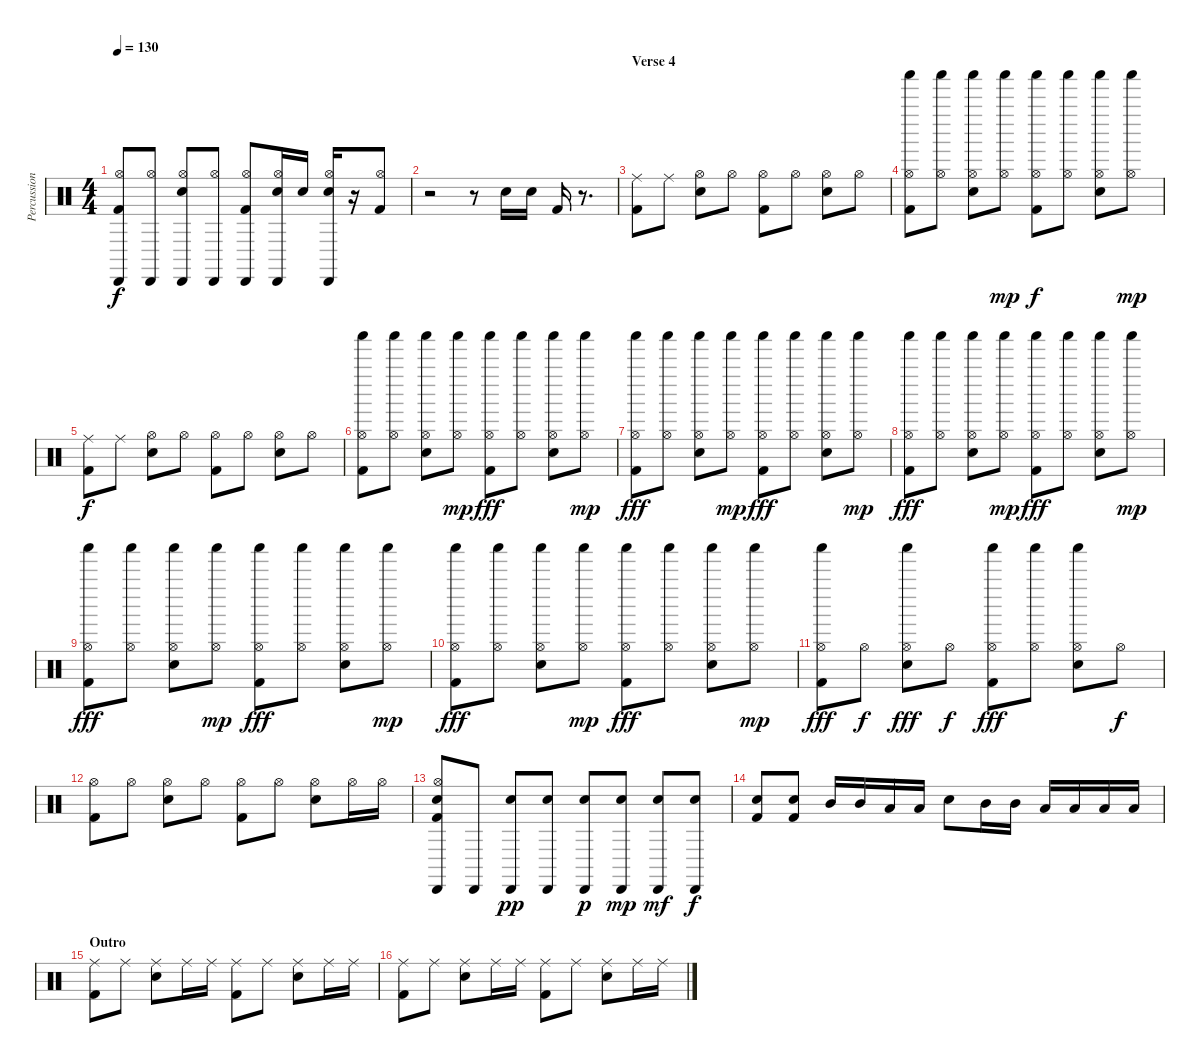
\track ("Percussion" "Percussion") {instrument percussion}
\staff {score}
\articulation defaults
\ts (4 4)
\tempo 130
\clef neutral
\ks c
("Cabasa (hit)" "Hi-Hat (open)" "Kick (hit) 2").8{dy f} ("Cabasa (hit)" "Hi-Hat (open)").8 ("Cabasa (hit)" "Hi-Hat (open)" "Snare (hit) 2").8 ("Cabasa (hit)" "Hi-Hat (open)").8 ("Cabasa (hit)" "Hi-Hat (open)" "Kick (hit) 2").8 ("Cabasa (hit)" "Hi-Hat (open)" "Snare (hit) 2").16 "Snare (hit) 2".16 ("Cabasa (hit)" "Hi-Hat (open)" "Snare (hit) 2").16 r.16 ("Hi-Hat (open)" "Kick (hit) 2").8 |
r.2 r.8 "Snare (hit) 2".16 "Snare (hit) 2".16 "Kick (hit) 2".16 r.8{d} |
\section ("" "Verse 4")
("Ride (middle)" "Kick (hit) 2").8 "Ride (middle)".8 ("Hi-Hat (open)" "Snare (hit) 2").8 "Hi-Hat (open)".8 ("Hi-Hat (open)" "Kick (hit) 2").8 "Hi-Hat (open)".8 ("Hi-Hat (open)" "Snare (hit) 2").8 "Hi-Hat (open)".8 |
("Shaker (hit)" "Hi-Hat (open)" "Kick (hit) 2").8 ("Shaker (hit)" "Hi-Hat (open)").8 ("Shaker (hit)" "Hi-Hat (open)" "Snare (hit) 2").8 ("Shaker (hit)" "Hi-Hat (open)").8{dy mp} ("Shaker (hit)" "Hi-Hat (open)" "Kick (hit) 2").8{dy f} ("Shaker (hit)" "Hi-Hat (open)").8 ("Shaker (hit)" "Hi-Hat (open)" "Snare (hit) 2").8 ("Shaker (hit)" "Hi-Hat (open)").8{dy mp} |
("Ride (middle)" "Kick (hit) 2").8{dy f} "Ride (middle)".8 ("Hi-Hat (open)" "Snare (hit) 2").8 "Hi-Hat (open)".8 ("Hi-Hat (open)" "Kick (hit) 2").8 "Hi-Hat (open)".8 ("Hi-Hat (open)" "Snare (hit) 2").8 "Hi-Hat (open)".8 |
("Shaker (hit)" "Hi-Hat (open)" "Kick (hit) 2").8 ("Shaker (hit)" "Hi-Hat (open)").8 ("Shaker (hit)" "Hi-Hat (open)" "Snare (hit) 2").8 ("Shaker (hit)" "Hi-Hat (open)").8{dy mp} ("Shaker (hit)" "Hi-Hat (open)" "Kick (hit) 2").8{dy fff} ("Shaker (hit)" "Hi-Hat (open)").8 ("Shaker (hit)" "Hi-Hat (open)" "Snare (hit) 2").8 ("Shaker (hit)" "Hi-Hat (open)").8{dy mp} |
("Shaker (hit)" "Hi-Hat (open)" "Kick (hit) 2").8{dy fff} ("Shaker (hit)" "Hi-Hat (open)").8 ("Shaker (hit)" "Hi-Hat (open)" "Snare (hit) 2").8 ("Shaker (hit)" "Hi-Hat (open)").8{dy mp} ("Shaker (hit)" "Hi-Hat (open)" "Kick (hit) 2").8{dy fff} ("Shaker (hit)" "Hi-Hat (open)").8 ("Shaker (hit)" "Hi-Hat (open)" "Snare (hit) 2").8 ("Shaker (hit)" "Hi-Hat (open)").8{dy mp} |
("Shaker (hit)" "Hi-Hat (open)" "Kick (hit) 2").8{dy fff} ("Shaker (hit)" "Hi-Hat (open)").8 ("Shaker (hit)" "Hi-Hat (open)" "Snare (hit) 2").8 ("Shaker (hit)" "Hi-Hat (open)").8{dy mp} ("Shaker (hit)" "Hi-Hat (open)" "Kick (hit) 2").8{dy fff} ("Shaker (hit)" "Hi-Hat (open)").8 ("Shaker (hit)" "Hi-Hat (open)" "Snare (hit) 2").8 ("Shaker (hit)" "Hi-Hat (open)").8{dy mp} |
("Shaker (hit)" "Hi-Hat (open)" "Kick (hit) 2").8{dy fff} ("Shaker (hit)" "Hi-Hat (open)").8 ("Shaker (hit)" "Hi-Hat (open)" "Snare (hit) 2").8 ("Shaker (hit)" "Hi-Hat (open)").8{dy mp} ("Shaker (hit)" "Hi-Hat (open)" "Kick (hit) 2").8{dy fff} ("Shaker (hit)" "Hi-Hat (open)").8 ("Shaker (hit)" "Hi-Hat (open)" "Snare (hit) 2").8 ("Shaker (hit)" "Hi-Hat (open)").8{dy mp} |
("Shaker (hit)" "Hi-Hat (open)" "Kick (hit) 2").8{dy fff} ("Shaker (hit)" "Hi-Hat (open)").8 ("Shaker (hit)" "Hi-Hat (open)" "Snare (hit) 2").8 ("Shaker (hit)" "Hi-Hat (open)").8{dy mp} ("Shaker (hit)" "Hi-Hat (open)" "Kick (hit) 2").8{dy fff} ("Shaker (hit)" "Hi-Hat (open)").8 ("Shaker (hit)" "Hi-Hat (open)" "Snare (hit) 2").8 ("Shaker (hit)" "Hi-Hat (open)").8{dy mp} |
("Shaker (hit)" "Hi-Hat (open)" "Kick (hit) 2").8{dy fff} "Hi-Hat (open)".8{dy f} ("Shaker (hit)" "Hi-Hat (open)" "Snare (hit) 2").8{dy fff} "Hi-Hat (open)".8{dy f} ("Shaker (hit)" "Hi-Hat (open)" "Kick (hit) 2").8{dy fff} ("Shaker (hit)" "Hi-Hat (open)").8 ("Shaker (hit)" "Hi-Hat (open)" "Snare (hit) 2").8 "Hi-Hat (open)".8{dy f} |
("Hi-Hat (open)" "Kick (hit) 2").8 "Hi-Hat (open)".8 ("Hi-Hat (open)" "Snare (hit) 2").8 "Hi-Hat (open)".8 ("Hi-Hat (open)" "Kick (hit) 2").8 "Hi-Hat (open)".8 ("Hi-Hat (open)" "Snare (hit) 2").8 "Hi-Hat (open)".16 "Hi-Hat (open)".16 |
("Cabasa (hit)" "Hi-Hat (open)" "Snare (hit) 2" "Kick (hit) 2").8 "Cabasa (hit)".8 ("Cabasa (hit)" "Snare (hit) 2").8{dy pp} ("Cabasa (hit)" "Snare (hit) 2").8 ("Cabasa (hit)" "Snare (hit) 2").8{dy p} ("Cabasa (hit)" "Snare (hit) 2").8{dy mp} ("Cabasa (hit)" "Snare (hit) 2").8{dy mf} ("Cabasa (hit)" "Snare (hit) 2").8{dy f} |
("Snare (hit) 2" "Kick (hit) 2").8 ("Snare (hit) 2" "Kick (hit) 2").8 "Mid Tom (hit)".16 "Mid Tom (hit)".16 "Low Tom (hit)".16 "Low Tom (hit)".16 "Snare (hit) 2".8 "Mid Tom (hit)".16 "Mid Tom (hit)".16 "Low Tom (hit)".16 "Low Tom (hit)".16 "Low Floor Tom (hit)".16 "Low Floor Tom (hit)".16 |
\section ("" "Outro")
("Ride (middle)" "Kick (hit) 2").8 "Ride (middle)".8 ("Ride (middle)" "Snare (hit) 2").8 "Ride (middle)".16 "Ride (middle)".16 ("Ride (middle)" "Kick (hit) 2").8 "Ride (middle)".8 ("Ride (middle)" "Snare (hit) 2").8 "Ride (middle)".16 "Ride (middle)".16 |
("Ride (middle)" "Kick (hit) 2").8 "Ride (middle)".8 ("Ride (middle)" "Snare (hit) 2").8 "Ride (middle)".16 "Ride (middle)".16 ("Ride (middle)" "Kick (hit) 2").8 "Ride (middle)".8 ("Ride (middle)" "Snare (hit) 2").8 "Ride (middle)".16 "Ride (middle)".16
